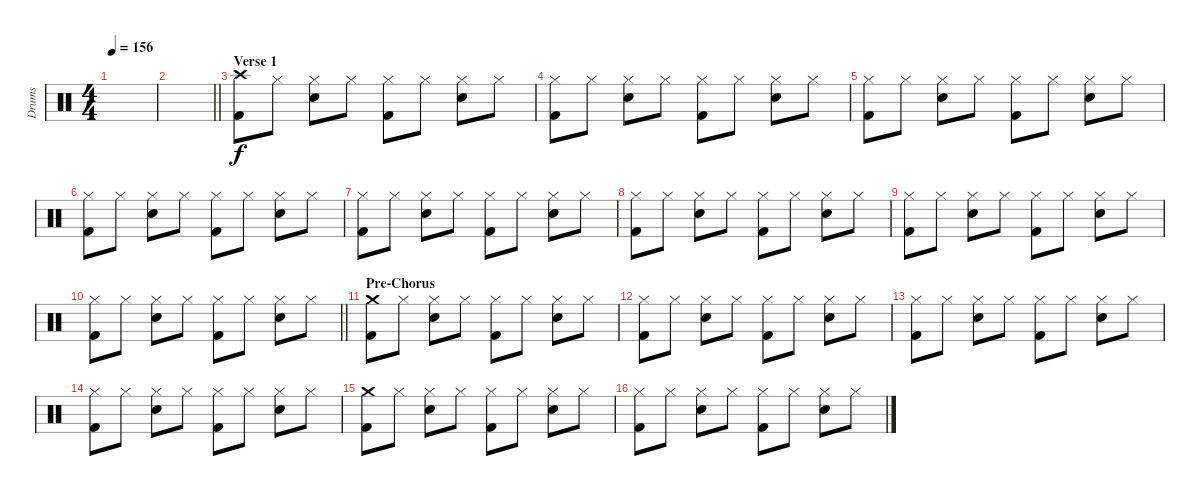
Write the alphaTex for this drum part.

\track ("Drums" "Drums") {instrument percussion}
\staff {score}
\articulation defaults
\ts (4 4)
\tempo 156
\clef neutral
\ks c
|
\barLineRight lightlight
|
\section ("" "Verse 1")
("Crash high (hit)" "Kick (hit) 2").8 "Hi-Hat (closed)".8 ("Hi-Hat (closed)" "Electric Snare (hit)").8 "Hi-Hat (closed)".8 ("Hi-Hat (closed)" "Kick (hit) 2").8 "Hi-Hat (closed)".8 ("Hi-Hat (closed)" "Electric Snare (hit)").8 "Hi-Hat (closed)".8 |
("Hi-Hat (closed)" "Kick (hit) 2").8 "Hi-Hat (closed)".8 ("Hi-Hat (closed)" "Electric Snare (hit)").8 "Hi-Hat (closed)".8 ("Hi-Hat (closed)" "Kick (hit) 2").8 "Hi-Hat (closed)".8 ("Hi-Hat (closed)" "Electric Snare (hit)").8 "Hi-Hat (closed)".8 |
("Hi-Hat (closed)" "Kick (hit) 2").8 "Hi-Hat (closed)".8 ("Hi-Hat (closed)" "Electric Snare (hit)").8 "Hi-Hat (closed)".8 ("Hi-Hat (closed)" "Kick (hit) 2").8 "Hi-Hat (closed)".8 ("Hi-Hat (closed)" "Electric Snare (hit)").8 "Hi-Hat (closed)".8 |
("Hi-Hat (closed)" "Kick (hit) 2").8 "Hi-Hat (closed)".8 ("Hi-Hat (closed)" "Electric Snare (hit)").8 "Hi-Hat (closed)".8 ("Hi-Hat (closed)" "Kick (hit) 2").8 "Hi-Hat (closed)".8 ("Hi-Hat (closed)" "Electric Snare (hit)").8 "Hi-Hat (closed)".8 |
("Hi-Hat (closed)" "Kick (hit) 2").8 "Hi-Hat (closed)".8 ("Hi-Hat (closed)" "Electric Snare (hit)").8 "Hi-Hat (closed)".8 ("Hi-Hat (closed)" "Kick (hit) 2").8 "Hi-Hat (closed)".8 ("Hi-Hat (closed)" "Electric Snare (hit)").8 "Hi-Hat (closed)".8 |
("Hi-Hat (closed)" "Kick (hit) 2").8 "Hi-Hat (closed)".8 ("Hi-Hat (closed)" "Electric Snare (hit)").8 "Hi-Hat (closed)".8 ("Hi-Hat (closed)" "Kick (hit) 2").8 "Hi-Hat (closed)".8 ("Hi-Hat (closed)" "Electric Snare (hit)").8 "Hi-Hat (closed)".8 |
("Hi-Hat (closed)" "Kick (hit) 2").8 "Hi-Hat (closed)".8 ("Hi-Hat (closed)" "Electric Snare (hit)").8 "Hi-Hat (closed)".8 ("Hi-Hat (closed)" "Kick (hit) 2").8 "Hi-Hat (closed)".8 ("Hi-Hat (closed)" "Electric Snare (hit)").8 "Hi-Hat (closed)".8 |
\barLineRight lightlight
("Hi-Hat (closed)" "Kick (hit) 2").8 "Hi-Hat (closed)".8 ("Hi-Hat (closed)" "Electric Snare (hit)").8 "Hi-Hat (closed)".8 ("Hi-Hat (closed)" "Kick (hit) 2").8 "Hi-Hat (closed)".8 ("Hi-Hat (closed)" "Electric Snare (hit)").8 "Hi-Hat (closed)".8 |
\section ("" "Pre-Chorus")
("Crash medium (hit)" "Kick (hit) 2").8 "Hi-Hat (closed)".8 ("Hi-Hat (closed)" "Electric Snare (hit)").8 "Hi-Hat (closed)".8 ("Hi-Hat (closed)" "Kick (hit) 2").8 "Hi-Hat (closed)".8 ("Hi-Hat (closed)" "Electric Snare (hit)").8 "Hi-Hat (closed)".8 |
("Hi-Hat (closed)" "Kick (hit) 2").8 "Hi-Hat (closed)".8 ("Hi-Hat (closed)" "Electric Snare (hit)").8 "Hi-Hat (closed)".8 ("Hi-Hat (closed)" "Kick (hit) 2").8 "Hi-Hat (closed)".8 ("Hi-Hat (closed)" "Electric Snare (hit)").8 "Hi-Hat (closed)".8 |
("Hi-Hat (closed)" "Kick (hit) 2").8 "Hi-Hat (closed)".8 ("Hi-Hat (closed)" "Electric Snare (hit)").8 "Hi-Hat (closed)".8 ("Hi-Hat (closed)" "Kick (hit) 2").8 "Hi-Hat (closed)".8 ("Hi-Hat (closed)" "Electric Snare (hit)").8 "Hi-Hat (closed)".8 |
("Hi-Hat (closed)" "Kick (hit) 2").8 "Hi-Hat (closed)".8 ("Hi-Hat (closed)" "Electric Snare (hit)").8 "Hi-Hat (closed)".8 ("Hi-Hat (closed)" "Kick (hit) 2").8 "Hi-Hat (closed)".8 ("Hi-Hat (closed)" "Electric Snare (hit)").8 "Hi-Hat (closed)".8 |
("Crash medium (hit)" "Kick (hit) 2").8 "Hi-Hat (closed)".8 ("Hi-Hat (closed)" "Electric Snare (hit)").8 "Hi-Hat (closed)".8 ("Hi-Hat (closed)" "Kick (hit) 2").8 "Hi-Hat (closed)".8 ("Hi-Hat (closed)" "Electric Snare (hit)").8 "Hi-Hat (closed)".8 |
("Hi-Hat (closed)" "Kick (hit) 2").8 "Hi-Hat (closed)".8 ("Hi-Hat (closed)" "Electric Snare (hit)").8 "Hi-Hat (closed)".8 ("Hi-Hat (closed)" "Kick (hit) 2").8 "Hi-Hat (closed)".8 ("Hi-Hat (closed)" "Electric Snare (hit)").8 "Hi-Hat (closed)".8
